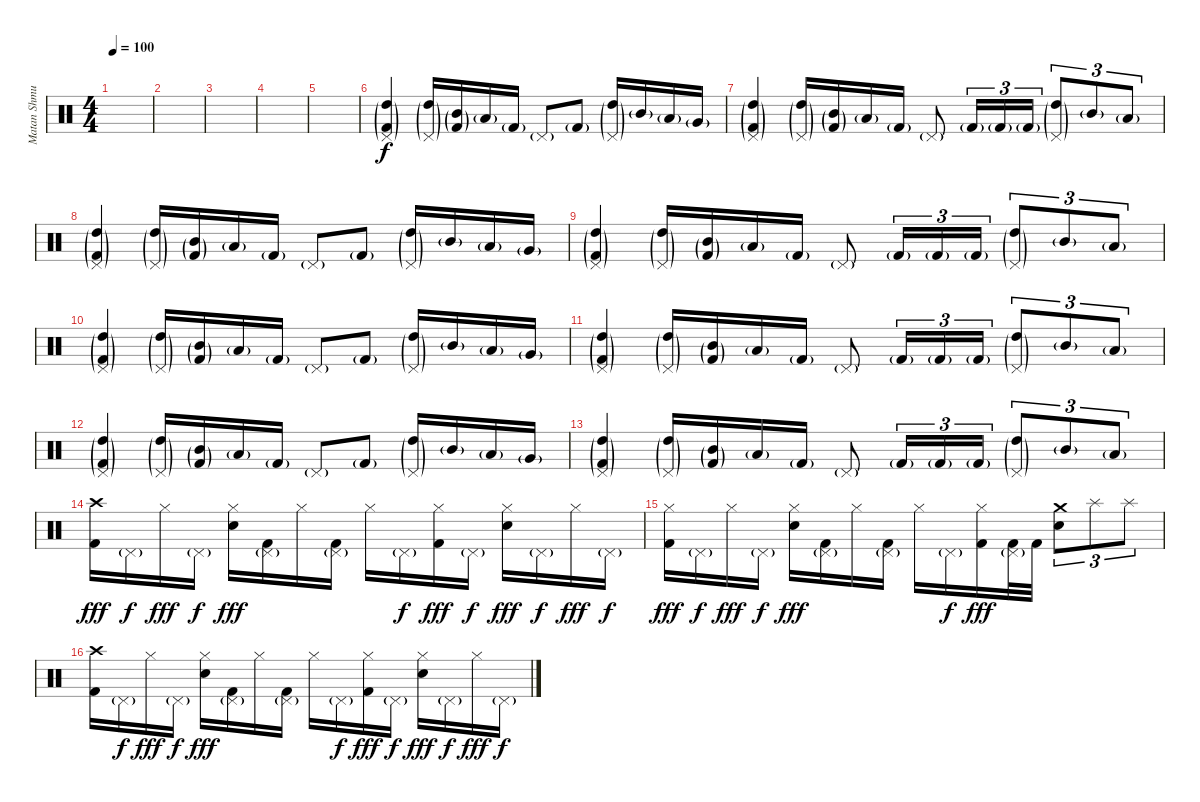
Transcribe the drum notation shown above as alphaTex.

\track ("Matan Shmuely" "Matan Shmu") {instrument percussion}
\staff {score}
\articulation defaults
\ts (4 4)
\tempo 100
\clef neutral
\ks c
|
|
|
|
|
("Kick (hit) 2"{g} "High Tom (hit)"{g} "Pedal Hi-Hat (hit)"{g}).4{dy f} ("High Tom (hit)"{g} "Pedal Hi-Hat (hit)"{g}).16 ("Kick (hit) 2"{g} "Mid Tom (hit)"{g}).16 "Low Tom (hit)"{g}.16 "Kick (hit) 2"{g}.16 "Pedal Hi-Hat (hit)"{g}.8 "Kick (hit) 2"{g}.8 ("High Tom (hit)"{g} "Pedal Hi-Hat (hit)"{g}).16 "Mid Tom (hit)"{g}.16 "Low Tom (hit)"{g}.16 "Very Low Tom (hit)"{g}.16 |
("Kick (hit) 2"{g} "High Tom (hit)"{g} "Pedal Hi-Hat (hit)"{g}).4 ("High Tom (hit)"{g} "Pedal Hi-Hat (hit)"{g}).16 ("Kick (hit) 2"{g} "Mid Tom (hit)"{g}).16 "Low Tom (hit)"{g}.16 "Kick (hit) 2"{g}.16 "Pedal Hi-Hat (hit)"{g}.8 "Kick (hit) 2"{g}.16{tu (3 2)} "Kick (hit) 2"{g}.16{tu (3 2)} "Kick (hit) 2"{g}.16{tu (3 2)} ("High Tom (hit)"{g} "Pedal Hi-Hat (hit)"{g}).8{tu (3 2)} "Mid Tom (hit)"{g}.8{tu (3 2)} "Low Tom (hit)"{g}.8{tu (3 2)} |
("Kick (hit) 2"{g} "High Tom (hit)"{g} "Pedal Hi-Hat (hit)"{g}).4 ("High Tom (hit)"{g} "Pedal Hi-Hat (hit)"{g}).16 ("Kick (hit) 2"{g} "Mid Tom (hit)"{g}).16 "Low Tom (hit)"{g}.16 "Kick (hit) 2"{g}.16 "Pedal Hi-Hat (hit)"{g}.8 "Kick (hit) 2"{g}.8 ("High Tom (hit)"{g} "Pedal Hi-Hat (hit)"{g}).16 "Mid Tom (hit)"{g}.16 "Low Tom (hit)"{g}.16 "Very Low Tom (hit)"{g}.16 |
("Kick (hit) 2"{g} "High Tom (hit)"{g} "Pedal Hi-Hat (hit)"{g}).4 ("High Tom (hit)"{g} "Pedal Hi-Hat (hit)"{g}).16 ("Kick (hit) 2"{g} "Mid Tom (hit)"{g}).16 "Low Tom (hit)"{g}.16 "Kick (hit) 2"{g}.16 "Pedal Hi-Hat (hit)"{g}.8 "Kick (hit) 2"{g}.16{tu (3 2)} "Kick (hit) 2"{g}.16{tu (3 2)} "Kick (hit) 2"{g}.16{tu (3 2)} ("High Tom (hit)"{g} "Pedal Hi-Hat (hit)"{g}).8{tu (3 2)} "Mid Tom (hit)"{g}.8{tu (3 2)} "Low Tom (hit)"{g}.8{tu (3 2)} |
("Kick (hit) 2"{g} "High Tom (hit)"{g} "Pedal Hi-Hat (hit)"{g}).4 ("High Tom (hit)"{g} "Pedal Hi-Hat (hit)"{g}).16 ("Kick (hit) 2"{g} "Mid Tom (hit)"{g}).16 "Low Tom (hit)"{g}.16 "Kick (hit) 2"{g}.16 "Pedal Hi-Hat (hit)"{g}.8 "Kick (hit) 2"{g}.8 ("High Tom (hit)"{g} "Pedal Hi-Hat (hit)"{g}).16 "Mid Tom (hit)"{g}.16 "Low Tom (hit)"{g}.16 "Very Low Tom (hit)"{g}.16 |
("Kick (hit) 2"{g} "High Tom (hit)"{g} "Pedal Hi-Hat (hit)"{g}).4 ("High Tom (hit)"{g} "Pedal Hi-Hat (hit)"{g}).16 ("Kick (hit) 2"{g} "Mid Tom (hit)"{g}).16 "Low Tom (hit)"{g}.16 "Kick (hit) 2"{g}.16 "Pedal Hi-Hat (hit)"{g}.8 "Kick (hit) 2"{g}.16{tu (3 2)} "Kick (hit) 2"{g}.16{tu (3 2)} "Kick (hit) 2"{g}.16{tu (3 2)} ("High Tom (hit)"{g} "Pedal Hi-Hat (hit)"{g}).8{tu (3 2)} "Mid Tom (hit)"{g}.8{tu (3 2)} "Low Tom (hit)"{g}.8{tu (3 2)} |
("Kick (hit) 2"{g} "High Tom (hit)"{g} "Pedal Hi-Hat (hit)"{g}).4 ("High Tom (hit)"{g} "Pedal Hi-Hat (hit)"{g}).16 ("Kick (hit) 2"{g} "Mid Tom (hit)"{g}).16 "Low Tom (hit)"{g}.16 "Kick (hit) 2"{g}.16 "Pedal Hi-Hat (hit)"{g}.8 "Kick (hit) 2"{g}.8 ("High Tom (hit)"{g} "Pedal Hi-Hat (hit)"{g}).16 "Mid Tom (hit)"{g}.16 "Low Tom (hit)"{g}.16 "Very Low Tom (hit)"{g}.16 |
("Kick (hit) 2"{g} "High Tom (hit)"{g} "Pedal Hi-Hat (hit)"{g}).4 ("High Tom (hit)"{g} "Pedal Hi-Hat (hit)"{g}).16 ("Kick (hit) 2"{g} "Mid Tom (hit)"{g}).16 "Low Tom (hit)"{g}.16 "Kick (hit) 2"{g}.16 "Pedal Hi-Hat (hit)"{g}.8 "Kick (hit) 2"{g}.16{tu (3 2)} "Kick (hit) 2"{g}.16{tu (3 2)} "Kick (hit) 2"{g}.16{tu (3 2)} ("High Tom (hit)"{g} "Pedal Hi-Hat (hit)"{g}).8{tu (3 2)} "Mid Tom (hit)"{g}.8{tu (3 2)} "Low Tom (hit)"{g}.8{tu (3 2)} |
("Kick (hit) 2" "Crash high (hit)").16{dy fff} "Pedal Hi-Hat (hit)"{g}.16{dy f} "Hi-Hat (closed)".16{dy fff} "Pedal Hi-Hat (hit)"{g}.16{dy f} ("Electric Snare (hit)" "Hi-Hat (closed)").16{dy fff} ("Kick (hit) 2" "Pedal Hi-Hat (hit)"{g}).16 "Hi-Hat (closed)".16 ("Kick (hit) 2" "Pedal Hi-Hat (hit)"{g}).16 "Hi-Hat (closed)".16 "Pedal Hi-Hat (hit)"{g}.16{dy f} ("Kick (hit) 2" "Hi-Hat (closed)").16{dy fff} "Pedal Hi-Hat (hit)"{g}.16{dy f} ("Electric Snare (hit)" "Hi-Hat (closed)").16{dy fff} "Pedal Hi-Hat (hit)"{g}.16{dy f} "Hi-Hat (closed)".16{dy fff} "Pedal Hi-Hat (hit)"{g}.16{dy f} |
("Kick (hit) 2" "Hi-Hat (closed)").16{dy fff} "Pedal Hi-Hat (hit)"{g}.16{dy f} "Hi-Hat (closed)".16{dy fff} "Pedal Hi-Hat (hit)"{g}.16{dy f} ("Electric Snare (hit)" "Hi-Hat (closed)").16{dy fff} ("Kick (hit) 2" "Pedal Hi-Hat (hit)"{g}).16 "Hi-Hat (closed)".16 ("Kick (hit) 2" "Pedal Hi-Hat (hit)"{g}).16 "Hi-Hat (closed)".16 "Pedal Hi-Hat (hit)"{g}.16{dy f} ("Kick (hit) 2" "Hi-Hat (closed)").16{dy fff} ("Kick (hit) 2" "Pedal Hi-Hat (hit)"{g}).32 "Kick (hit) 2".32 ("Electric Snare (hit)" "Crash medium (hit)").8{tu (3 2)} "Splash (hit)".8{tu (3 2)} "Splash (hit)".8{tu (3 2)} |
("Kick (hit) 2" "Crash high (hit)").16 "Pedal Hi-Hat (hit)"{g}.16{dy f} "Hi-Hat (closed)".16{dy fff} "Pedal Hi-Hat (hit)"{g}.16{dy f} ("Electric Snare (hit)" "Hi-Hat (closed)").16{dy fff} ("Kick (hit) 2" "Pedal Hi-Hat (hit)"{g}).16 "Hi-Hat (closed)".16 ("Kick (hit) 2" "Pedal Hi-Hat (hit)"{g}).16 "Hi-Hat (closed)".16 "Pedal Hi-Hat (hit)"{g}.16{dy f} ("Kick (hit) 2" "Hi-Hat (closed)").16{dy fff} "Pedal Hi-Hat (hit)"{g}.16{dy f} ("Electric Snare (hit)" "Hi-Hat (closed)").16{dy fff} "Pedal Hi-Hat (hit)"{g}.16{dy f} "Hi-Hat (closed)".16{dy fff} "Pedal Hi-Hat (hit)"{g}.16{dy f}
